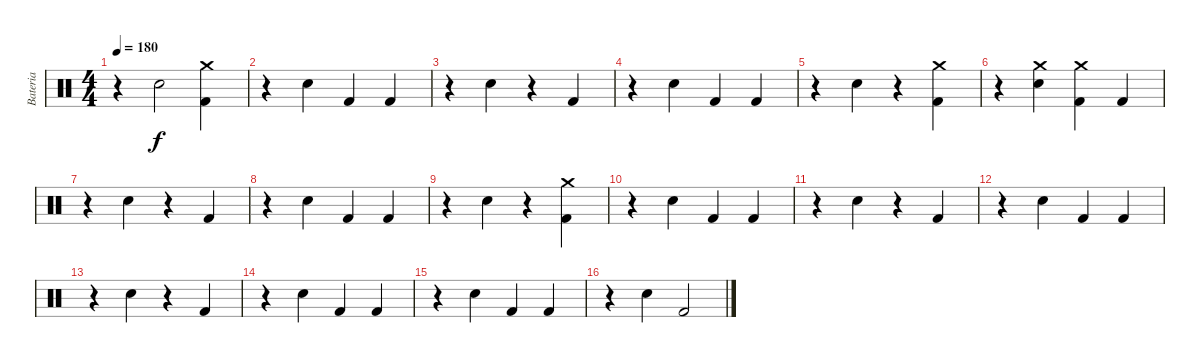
\track ("Bateria" "Bateria") {instrument percussion}
\staff {score}
\articulation defaults
\ts (4 4)
\tempo 180
\clef neutral
\ks c
r.4{dy f} "Electric Snare (hit)".2 ("Crash medium (hit)" "Kick (hit) 2").4 |
r.4 "Electric Snare (hit)".4 "Kick (hit) 2".4 "Kick (hit) 2".4 |
r.4 "Electric Snare (hit)".4 r.4 "Kick (hit) 2".4 |
r.4 "Electric Snare (hit)".4 "Kick (hit) 2".4 "Kick (hit) 2".4 |
r.4 "Electric Snare (hit)".4 r.4 ("Crash medium (hit)" "Kick (hit) 2").4 |
r.4 ("Crash medium (hit)" "Electric Snare (hit)").4 ("Crash medium (hit)" "Kick (hit) 2").4 "Kick (hit) 2".4 |
r.4 "Electric Snare (hit)".4 r.4 "Kick (hit) 2".4 |
r.4 "Electric Snare (hit)".4 "Kick (hit) 2".4 "Kick (hit) 2".4 |
r.4 "Electric Snare (hit)".4 r.4 ("Crash medium (hit)" "Kick (hit) 2").4 |
r.4 "Electric Snare (hit)".4 "Kick (hit) 2".4 "Kick (hit) 2".4 |
r.4 "Electric Snare (hit)".4 r.4 "Kick (hit) 2".4 |
r.4 "Electric Snare (hit)".4 "Kick (hit) 2".4 "Kick (hit) 2".4 |
r.4 "Electric Snare (hit)".4 r.4 "Kick (hit) 2".4 |
r.4 "Electric Snare (hit)".4 "Kick (hit) 2".4 "Kick (hit) 2".4 |
r.4 "Electric Snare (hit)".4 "Kick (hit) 2".4 "Kick (hit) 2".4 |
r.4 "Electric Snare (hit)".4 "Kick (hit) 2".2
